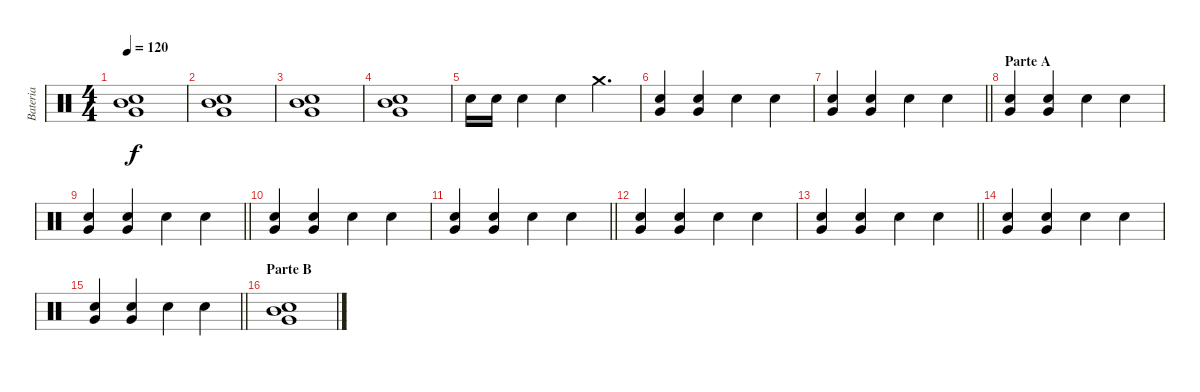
\track ("Bateria" "Bateria") {instrument percussion}
\staff {score}
\articulation defaults
\ts (4 4)
\tempo 120
\clef neutral
\ks c
("Snare (hit) 2" "Very Low Tom (hit)" "Mid Tom (hit)").1{dy f} |
("Snare (hit) 2" "Very Low Tom (hit)" "Mid Tom (hit)").1 |
("Snare (hit) 2" "Very Low Tom (hit)" "Mid Tom (hit)").1 |
("Snare (hit) 2" "Very Low Tom (hit)" "Mid Tom (hit)").1 |
"Snare (hit) 2".16 "Snare (hit) 2".16 "Snare (hit) 2".4 "Snare (hit) 2".4 "Crash medium (hit)".4{d} |
("Snare (hit) 2" "Very Low Tom (hit)").4 ("Snare (hit) 2" "Very Low Tom (hit)").4 "Snare (hit) 2".4 "Snare (hit) 2".4 |
\barLineRight lightlight
("Snare (hit) 2" "Very Low Tom (hit)").4 ("Snare (hit) 2" "Very Low Tom (hit)").4 "Snare (hit) 2".4 "Snare (hit) 2".4 |
\section ("" "Parte A")
("Snare (hit) 2" "Very Low Tom (hit)").4 ("Snare (hit) 2" "Very Low Tom (hit)").4 "Snare (hit) 2".4 "Snare (hit) 2".4 |
\barLineRight lightlight
("Snare (hit) 2" "Very Low Tom (hit)").4 ("Snare (hit) 2" "Very Low Tom (hit)").4 "Snare (hit) 2".4 "Snare (hit) 2".4 |
("Snare (hit) 2" "Very Low Tom (hit)").4 ("Snare (hit) 2" "Very Low Tom (hit)").4 "Snare (hit) 2".4 "Snare (hit) 2".4 |
\barLineRight lightlight
("Snare (hit) 2" "Very Low Tom (hit)").4 ("Snare (hit) 2" "Very Low Tom (hit)").4 "Snare (hit) 2".4 "Snare (hit) 2".4 |
("Snare (hit) 2" "Very Low Tom (hit)").4 ("Snare (hit) 2" "Very Low Tom (hit)").4 "Snare (hit) 2".4 "Snare (hit) 2".4 |
\barLineRight lightlight
("Snare (hit) 2" "Very Low Tom (hit)").4 ("Snare (hit) 2" "Very Low Tom (hit)").4 "Snare (hit) 2".4 "Snare (hit) 2".4 |
("Snare (hit) 2" "Very Low Tom (hit)").4 ("Snare (hit) 2" "Very Low Tom (hit)").4 "Snare (hit) 2".4 "Snare (hit) 2".4 |
\barLineRight lightlight
("Snare (hit) 2" "Very Low Tom (hit)").4 ("Snare (hit) 2" "Very Low Tom (hit)").4 "Snare (hit) 2".4 "Snare (hit) 2".4 |
\section ("" "Parte B")
("Snare (hit) 2" "Very Low Tom (hit)" "Mid Tom (hit)").1
